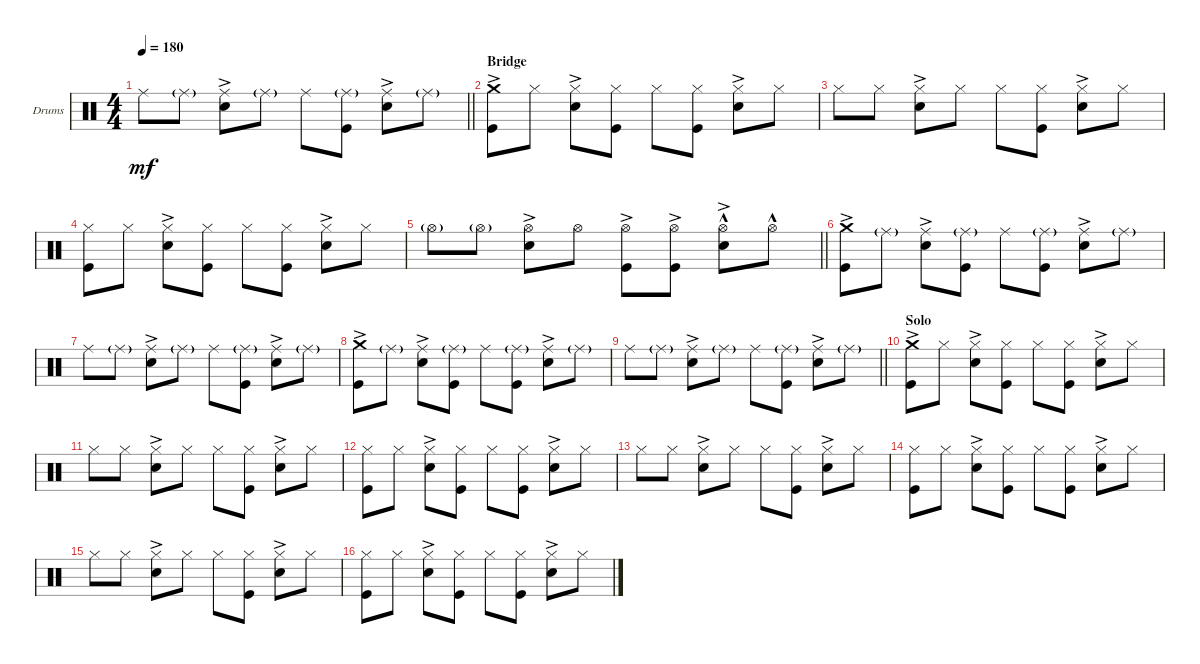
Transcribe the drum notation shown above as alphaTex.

\defaultSystemsLayout 4
\bracketExtendMode groupsimilarinstruments
\firstSystemTrackNameOrientation horizontal
\otherSystemsTrackNameOrientation horizontal
\track ("Will - Drumkit" "Drums") {instrument percussion}
\staff {score}
\articulation defaults
\ts (4 4)
\tempo 180
\clef neutral
\barLineRight lightlight
\ks c "Ride (middle)".8{dy mf} "Ride (middle)"{g}.8
("Ride (middle)" "Snare (hit) 2"{ac}).8 "Ride (middle)"{g}.8 "Ride (middle)".8 ("Ride (middle)"{g} "Kick (hit)").8 ("Ride (middle)" "Snare (hit) 2"{ac}).8 "Ride (middle)"{g}.8 |
\section ("" "Bridge")
("Crash medium (hit)"{ac} "Kick (hit)").8 "Hi-Hat (closed)".8 ("Hi-Hat (closed)" "Snare (hit) 2"{ac}).8 ("Hi-Hat (closed)" "Kick (hit)").8 "Hi-Hat (closed)".8 ("Hi-Hat (closed)" "Kick (hit)").8 ("Hi-Hat (closed)" "Snare (hit) 2"{ac}).8 "Hi-Hat (closed)".8 |
"Hi-Hat (closed)".8 "Hi-Hat (closed)".8 ("Hi-Hat (closed)" "Snare (hit) 2"{ac}).8 "Hi-Hat (closed)".8 "Hi-Hat (closed)".8 ("Hi-Hat (closed)" "Kick (hit)").8 ("Hi-Hat (closed)" "Snare (hit) 2"{ac}).8 "Hi-Hat (closed)".8 |
("Kick (hit)" "Hi-Hat (closed)").8 "Hi-Hat (closed)".8 ("Hi-Hat (closed)" "Snare (hit) 2"{ac}).8 ("Hi-Hat (closed)" "Kick (hit)").8 "Hi-Hat (closed)".8 ("Hi-Hat (closed)" "Kick (hit)").8 ("Hi-Hat (closed)" "Snare (hit) 2"{ac}).8 "Hi-Hat (closed)".8 |
\barLineRight lightlight "Hi-Hat (open)"{g}.8 "Hi-Hat (open)"{g}.8
("Hi-Hat (open)" "Snare (hit) 2"{ac}).8 "Hi-Hat (open)".8 ("Hi-Hat (open)"{ac} "Kick (hit)").8 ("Hi-Hat (open)"{ac} "Kick (hit)").8 ("Hi-Hat (open)"{hac} "Snare (hit) 2"{ac}).8 "Hi-Hat (open)"{hac}.8 |
("Crash medium (hit)"{ac} "Kick (hit)").8 "Ride (middle)"{g}.8 ("Ride (middle)" "Snare (hit) 2"{ac}).8 ("Ride (middle)"{g} "Kick (hit)").8 "Ride (middle)".8 ("Ride (middle)"{g} "Kick (hit)").8 ("Ride (middle)" "Snare (hit) 2"{ac}).8 "Ride (middle)"{g}.8 |
"Ride (middle)".8 "Ride (middle)"{g}.8 ("Ride (middle)" "Snare (hit) 2"{ac}).8 "Ride (middle)"{g}.8 "Ride (middle)".8 ("Ride (middle)"{g} "Kick (hit)").8 ("Ride (middle)" "Snare (hit) 2"{ac}).8 "Ride (middle)"{g}.8 |
("Kick (hit)" "Crash medium (hit)"{ac}).8 "Ride (middle)"{g}.8 ("Ride (middle)" "Snare (hit) 2"{ac}).8 ("Ride (middle)"{g} "Kick (hit)").8 "Ride (middle)".8 ("Ride (middle)"{g} "Kick (hit)").8 ("Ride (middle)" "Snare (hit) 2"{ac}).8 "Ride (middle)"{g}.8 |
\barLineRight lightlight "Ride (middle)".8 "Ride (middle)"{g}.8
("Ride (middle)" "Snare (hit) 2"{ac}).8 "Ride (middle)"{g}.8 "Ride (middle)".8 ("Ride (middle)"{g} "Kick (hit)").8 ("Ride (middle)" "Snare (hit) 2"{ac}).8 "Ride (middle)"{g}.8 |
\section ("" "Solo")
("Crash medium (hit)"{ac} "Kick (hit)").8 "Hi-Hat (closed)".8 ("Hi-Hat (closed)" "Snare (hit) 2"{ac}).8 ("Hi-Hat (closed)" "Kick (hit)").8 "Hi-Hat (closed)".8 ("Hi-Hat (closed)" "Kick (hit)").8 ("Hi-Hat (closed)" "Snare (hit) 2"{ac}).8 "Hi-Hat (closed)".8 |
"Hi-Hat (closed)".8 "Hi-Hat (closed)".8 ("Hi-Hat (closed)" "Snare (hit) 2"{ac}).8 "Hi-Hat (closed)".8 "Hi-Hat (closed)".8 ("Hi-Hat (closed)" "Kick (hit)").8 ("Hi-Hat (closed)" "Snare (hit) 2"{ac}).8 "Hi-Hat (closed)".8 |
("Kick (hit)" "Hi-Hat (closed)").8 "Hi-Hat (closed)".8 ("Hi-Hat (closed)" "Snare (hit) 2"{ac}).8 ("Hi-Hat (closed)" "Kick (hit)").8 "Hi-Hat (closed)".8 ("Hi-Hat (closed)" "Kick (hit)").8 ("Hi-Hat (closed)" "Snare (hit) 2"{ac}).8 "Hi-Hat (closed)".8 |
"Hi-Hat (closed)".8 "Hi-Hat (closed)".8 ("Hi-Hat (closed)" "Snare (hit) 2"{ac}).8 "Hi-Hat (closed)".8 "Hi-Hat (closed)".8 ("Hi-Hat (closed)" "Kick (hit)").8 ("Hi-Hat (closed)" "Snare (hit) 2"{ac}).8 "Hi-Hat (closed)".8 |
("Kick (hit)" "Hi-Hat (closed)").8 "Hi-Hat (closed)".8 ("Hi-Hat (closed)" "Snare (hit) 2"{ac}).8 ("Hi-Hat (closed)" "Kick (hit)").8 "Hi-Hat (closed)".8 ("Hi-Hat (closed)" "Kick (hit)").8 ("Hi-Hat (closed)" "Snare (hit) 2"{ac}).8 "Hi-Hat (closed)".8 |
"Hi-Hat (closed)".8 "Hi-Hat (closed)".8 ("Hi-Hat (closed)" "Snare (hit) 2"{ac}).8 "Hi-Hat (closed)".8 "Hi-Hat (closed)".8 ("Hi-Hat (closed)" "Kick (hit)").8 ("Hi-Hat (closed)" "Snare (hit) 2"{ac}).8 "Hi-Hat (closed)".8 |
("Kick (hit)" "Hi-Hat (closed)").8 "Hi-Hat (closed)".8 ("Hi-Hat (closed)" "Snare (hit) 2"{ac}).8 ("Hi-Hat (closed)" "Kick (hit)").8 "Hi-Hat (closed)".8 ("Hi-Hat (closed)" "Kick (hit)").8 ("Hi-Hat (closed)" "Snare (hit) 2"{ac}).8 "Hi-Hat (closed)".8
